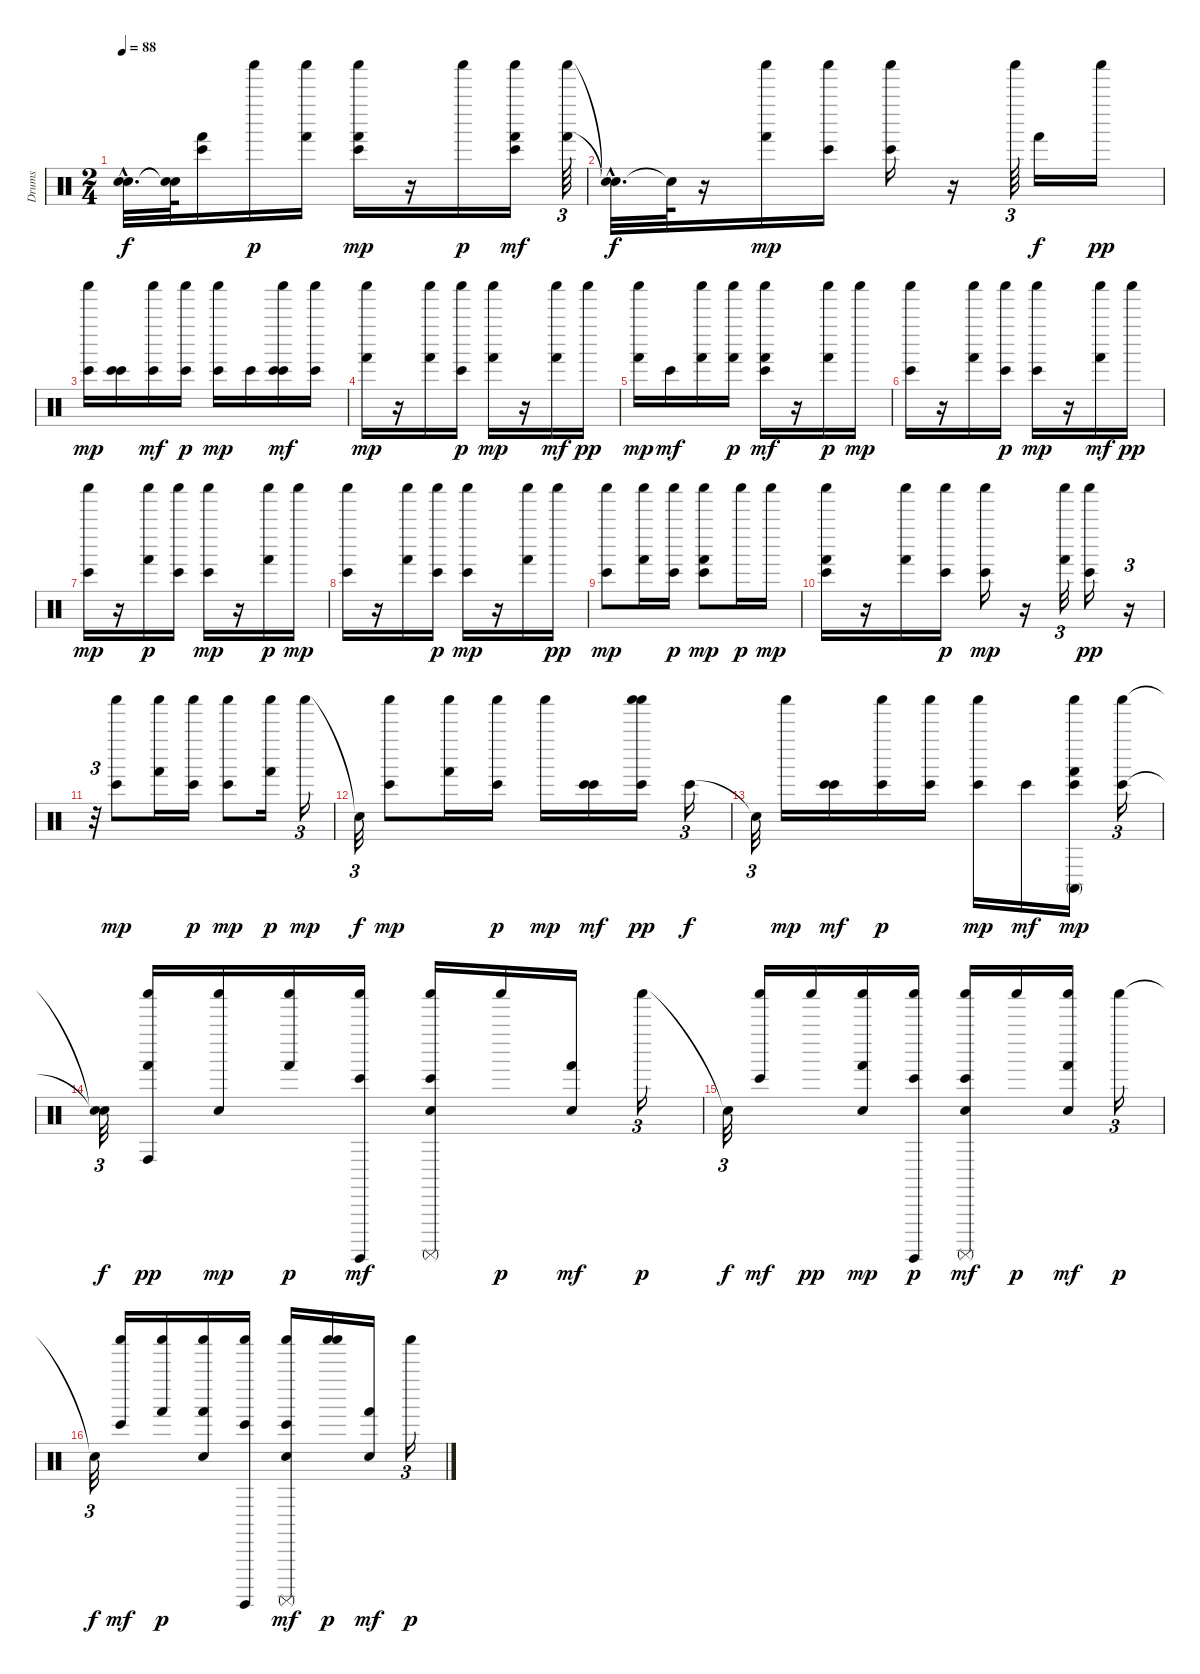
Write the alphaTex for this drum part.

\track ("Drums" "Drums") {instrument percussion}
\staff {score}
\articulation defaults
\ts (2 4)
\tempo 88
\clef neutral
\ks c
("Snare (hit)"{hac t} "Snare (hit)"{hac t}).32{d dy f} ("Snare (hit)"{t} "Snare (hit)"{t}).64 ("Bongo High (hit)" "Hand (hit)").16 "Shaker (hit)".16{dy p} ("Hand (hit)" "Shaker (hit)").16 ("Bongo High (hit)" "Shaker (hit)" "Hand (hit)").16{dy mp} r.16 "Shaker (hit)".16{dy p} ("Bongo High (hit)" "Shaker (hit)" "Hand (hit)").16{dy mf} ("Shaker (hit)" "Hand (hit)").64{tu (3 2)} |
("Snare (hit)"{hac t} "Snare (hit)"{hac t}).32{d dy f} "Snare (hit)"{t}.64 r.16 ("Shaker (hit)" "Hand (hit)").16{dy mp} ("Shaker (hit)" "Bongo High (hit)").16 ("Shaker (hit)" "Bongo High (hit)").16 r.16 "Shaker (hit)".64{tu (3 2)} "Hand (hit)".16{dy f} "Shaker (hit)".16{dy pp} |
("Shaker (hit)" "Bongo High (hit)").16{dy mp} ("Bongo High (hit)" "Bongo High (hit)").16 ("Shaker (hit)" "Bongo High (hit)").16{dy mf} ("Bongo High (hit)" "Shaker (hit)").16{dy p} ("Shaker (hit)" "Bongo High (hit)").16{dy mp} "Bongo High (hit)".16 ("Bongo High (hit)" "Shaker (hit)" "Bongo High (hit)").16{dy mf} ("Shaker (hit)" "Bongo High (hit)").16 |
("Hand (hit)" "Shaker (hit)").16{dy mp} r.16 ("Hand (hit)" "Shaker (hit)").16 ("Bongo High (hit)" "Shaker (hit)").16{dy p} ("Hand (hit)" "Shaker (hit)").16{dy mp} r.16 ("Shaker (hit)" "Hand (hit)").16{dy mf} "Shaker (hit)".16{dy pp} |
("Shaker (hit)" "Hand (hit)").16{dy mp} "Bongo High (hit)".16{dy mf} ("Shaker (hit)" "Hand (hit)").16 ("Hand (hit)" "Shaker (hit)").16{dy p} ("Shaker (hit)" "Hand (hit)" "Bongo High (hit)").16{dy mf} r.16 ("Shaker (hit)" "Hand (hit)").16{dy p} "Shaker (hit)".16{dy mp} |
("Shaker (hit)" "Bongo High (hit)").16 r.16 ("Hand (hit)" "Shaker (hit)").16 ("Bongo High (hit)" "Shaker (hit)").16{dy p} ("Bongo High (hit)" "Shaker (hit)").16{dy mp} r.16 ("Shaker (hit)" "Hand (hit)").16{dy mf} "Shaker (hit)".16{dy pp} |
("Shaker (hit)" "Bongo High (hit)").16{dy mp} r.16 ("Shaker (hit)" "Hand (hit)").16{dy p} ("Bongo High (hit)" "Shaker (hit)").16 ("Shaker (hit)" "Bongo High (hit)").16{dy mp} r.16 ("Hand (hit)" "Shaker (hit)").16{dy p} "Shaker (hit)".16{dy mp} |
("Shaker (hit)" "Bongo High (hit)").16 r.16 ("Hand (hit)" "Shaker (hit)").16 ("Bongo High (hit)" "Shaker (hit)").16{dy p} ("Shaker (hit)" "Bongo High (hit)").16{dy mp} r.16 ("Hand (hit)" "Shaker (hit)").16 "Shaker (hit)".16{dy pp} |
("Bongo High (hit)" "Shaker (hit)").8{dy mp} ("Shaker (hit)" "Hand (hit)").16 ("Bongo High (hit)" "Shaker (hit)").16{dy p} ("Bongo High (hit)" "Shaker (hit)" "Hand (hit)").8{dy mp} "Shaker (hit)".16{dy p} "Shaker (hit)".16{dy mp} |
("Hand (hit)" "Bongo High (hit)" "Shaker (hit)").16 r.16 ("Hand (hit)" "Shaker (hit)").16 ("Bongo High (hit)" "Shaker (hit)").16{dy p} ("Bongo High (hit)" "Shaker (hit)").16{dy mp} r.16 ("Shaker (hit)" "Hand (hit)").32{tu (3 2)} ("Bongo High (hit)" "Shaker (hit)").16{dy pp} r.16{tu (3 2)} |
r.32{tu (3 2)} ("Shaker (hit)" "Bongo High (hit)").8{dy mp} ("Shaker (hit)" "Hand (hit)").16 ("Bongo High (hit)" "Shaker (hit)").16{dy p} ("Bongo High (hit)" "Shaker (hit)").8{dy mp} ("Hand (hit)" "Shaker (hit)").16{dy p} "Shaker (hit)".16{tu (3 2) dy mp} |
"Snare (hit)"{t}.32{tu (3 2) dy f} ("Shaker (hit)" "Bongo High (hit)").8{dy mp} ("Hand (hit)" "Shaker (hit)").16 ("Bongo High (hit)" "Shaker (hit)").16{dy p} "Shaker (hit)".16{dy mp} ("Bongo High (hit)" "Bongo High (hit)").16{dy mf} ("Shaker (hit)" "Bongo High (hit)" "Shaker (hit)").16{dy pp} "Bongo High (hit)".16{tu (3 2) dy f} |
"Snare (hit)"{t}.32{tu (3 2)} "Shaker (hit)".16{dy mp} ("Bongo High (hit)" "Bongo High (hit)").16{dy mf} ("Bongo High (hit)" "Shaker (hit)").16{dy p} ("Bongo High (hit)" "Shaker (hit)").16 ("Bongo High (hit)" "Shaker (hit)").16{dy mp} "Bongo High (hit)".16{dy mf} ("Shaker (hit)" "Hand (hit)" "Bongo High (hit)" "Conga high (mute)").16{dy mp} ("Bongo High (hit)" "Shaker (hit)").16{tu (3 2)} |
("Snare (hit)"{t} "Snare (hit)"{t}).32{tu (3 2) dy f} ("Hand (hit)" "Shaker (hit)" "Conga high (hit)").16{dy pp} ("Shaker (hit)" "Hand Clap (hit)").16{dy mp} ("Hand (hit)" "Shaker (hit)").16{dy p} ("Shaker (hit)" "Bongo High (hit)" "Surdo (hit)").16{dy mf} ("Hand Clap (hit)" "Shaker (hit)" "Bongo High (hit)" "Surdo (mute)").16 "Shaker (hit)".16{dy p} ("Hand Clap (hit)" "Hand (hit)").16{dy mf} "Shaker (hit)".16{tu (3 2) dy p} |
"Snare (hit)"{t}.32{tu (3 2) dy f} ("Shaker (hit)" "Bongo High (hit)").16{dy mf} "Shaker (hit)".16{dy pp} ("Shaker (hit)" "Hand Clap (hit)" "Hand (hit)").16{dy mp} ("Bongo High (hit)" "Shaker (hit)" "Surdo (hit)").16{dy p} ("Hand Clap (hit)" "Shaker (hit)" "Bongo High (hit)" "Surdo (mute)").16{dy mf} "Shaker (hit)".16{dy p} ("Hand Clap (hit)" "Shaker (hit)" "Hand (hit)").16{dy mf} "Shaker (hit)".16{tu (3 2) dy p} |
"Snare (hit)"{t}.32{tu (3 2) dy f} ("Shaker (hit)" "Bongo High (hit)").16{dy mf} ("Shaker (hit)" "Hand (hit)").16{dy p} ("Shaker (hit)" "Hand Clap (hit)" "Hand (hit)").16 ("Shaker (hit)" "Surdo (hit)" "Bongo High (hit)").16 ("Shaker (hit)" "Hand Clap (hit)" "Surdo (mute)" "Bongo High (hit)").16{dy mf} ("Shaker (hit)" "Shaker (hit)").16{dy p} ("Hand Clap (hit)" "Hand (hit)").16{dy mf} "Shaker (hit)".16{tu (3 2) dy p}
